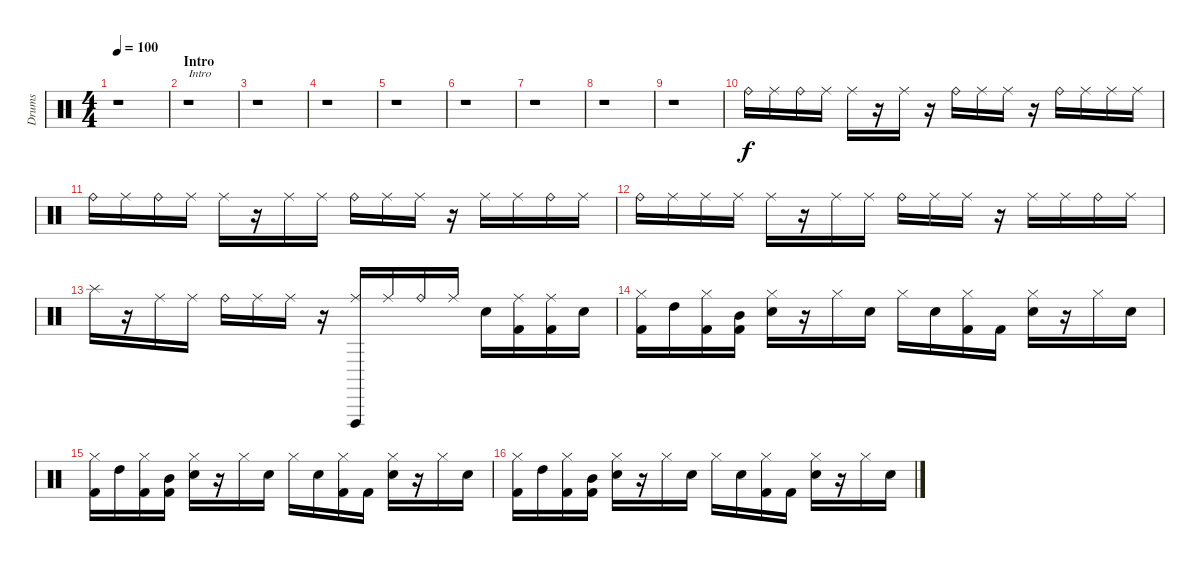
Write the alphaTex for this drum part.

\track ("Drums" "Drums") {instrument percussion}
\staff {score}
\articulation defaults
\ts (4 4)
\tempo 100
\clef neutral
\ks c
r.1{dy f} |
\section ("" "Intro")
r.1{txt "Intro"} |
r.1 |
r.1 |
r.1 |
r.1 |
r.1 |
r.1 |
r.1 |
"Ride (bell)".16 "Ride (middle)".16 "Ride (bell)".16 "Ride (middle)".16 "Ride (middle)".16 r.16 "Ride (middle)".16 r.16 "Ride (bell)".16 "Ride (middle)".16 "Ride (middle)".16 r.16 "Ride (bell)".16 "Ride (middle)".16 "Ride (middle)".16 "Ride (middle)".16 |
"Ride (bell)".16 "Ride (middle)".16 "Ride (bell)".16 "Ride (middle)".16 "Ride (middle)".16 r.16 "Ride (middle)".16 "Ride (middle)".16 "Ride (bell)".16 "Ride (middle)".16 "Ride (middle)".16 r.16 "Ride (middle)".16 "Ride (middle)".16 "Ride (bell)".16 "Ride (middle)".16 |
"Ride (bell)".16 "Ride (middle)".16 "Ride (middle)".16 "Ride (middle)".16 "Ride (middle)".16 r.16 "Ride (middle)".16 "Ride (middle)".16 "Ride (bell)".16 "Ride (middle)".16 "Ride (middle)".16 r.16 "Ride (middle)".16 "Ride (middle)".16 "Ride (bell)".16 "Ride (middle)".16 |
"Splash (hit)".16 r.16 "Ride (middle)".16 "Ride (middle)".16 "Ride (bell)".16 "Ride (middle)".16 "Ride (middle)".16 r.16 ("Ride (middle)" "Vibraslap (hit)").16 "Ride (middle)".16 "Ride (bell)".16 "Ride (middle)".16 "Electric Snare (hit)".16 ("Ride (middle)" "Kick (hit) 2").16 ("Ride (middle)" "Kick (hit) 2").16 "Electric Snare (hit)".16 |
("Hi-Hat (closed)" "Kick (hit) 2").16 "High Tom (hit)".16 ("Hi-Hat (closed)" "Kick (hit) 2").16 ("Mid Tom (hit)" "Kick (hit) 2").16 ("Hi-Hat (closed)" "Electric Snare (hit)").16 r.16 "Hi-Hat (closed)".16 "Electric Snare (hit)".16 "Hi-Hat (closed)".16 "Electric Snare (hit)".16 ("Hi-Hat (closed)" "Kick (hit) 2").16 "Kick (hit) 2".16 ("Hi-Hat (closed)" "Electric Snare (hit)").16 r.16 "Hi-Hat (closed)".16 "Electric Snare (hit)".16 |
("Hi-Hat (closed)" "Kick (hit) 2").16 "High Tom (hit)".16 ("Hi-Hat (closed)" "Kick (hit) 2").16 ("Mid Tom (hit)" "Kick (hit) 2").16 ("Hi-Hat (closed)" "Electric Snare (hit)").16 r.16 "Hi-Hat (closed)".16 "Electric Snare (hit)".16 "Hi-Hat (closed)".16 "Electric Snare (hit)".16 ("Hi-Hat (closed)" "Kick (hit) 2").16 "Kick (hit) 2".16 ("Hi-Hat (closed)" "Electric Snare (hit)").16 r.16 "Hi-Hat (closed)".16 "Electric Snare (hit)".16 |
("Hi-Hat (closed)" "Kick (hit) 2").16 "High Tom (hit)".16 ("Hi-Hat (closed)" "Kick (hit) 2").16 ("Mid Tom (hit)" "Kick (hit) 2").16 ("Hi-Hat (closed)" "Electric Snare (hit)").16 r.16 "Hi-Hat (closed)".16 "Electric Snare (hit)".16 "Hi-Hat (closed)".16 "Electric Snare (hit)".16 ("Hi-Hat (closed)" "Kick (hit) 2").16 "Kick (hit) 2".16 ("Hi-Hat (closed)" "Electric Snare (hit)").16 r.16 "Hi-Hat (closed)".16 "Electric Snare (hit)".16
